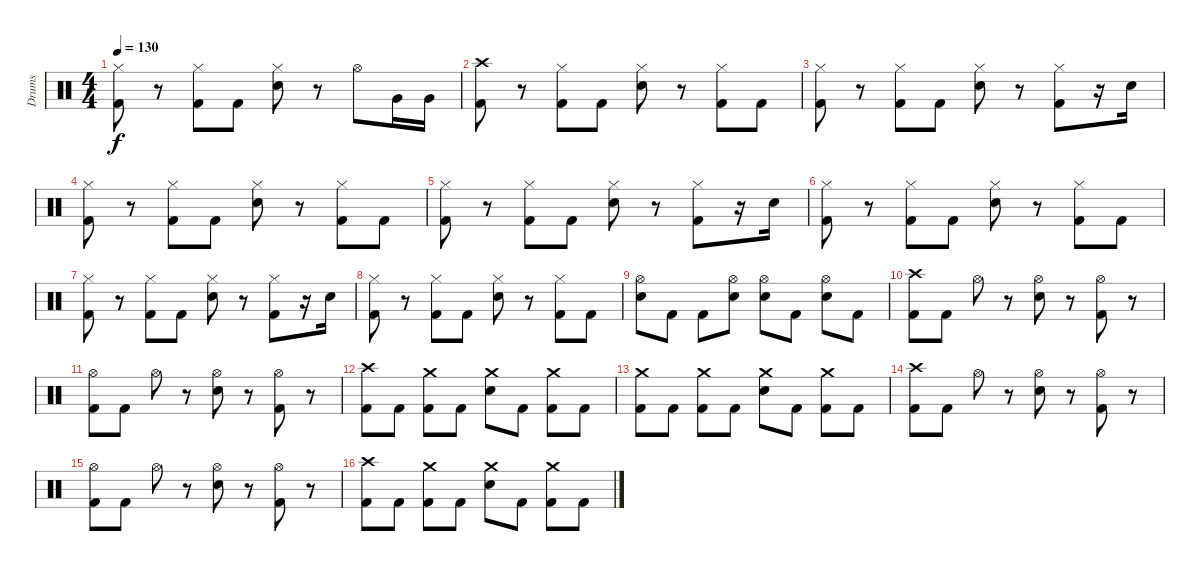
\track ("Drums" "Drums") {instrument percussion}
\staff {score}
\articulation defaults
\ts (4 4)
\tempo 130
\clef neutral
\ks c
("Hi-Hat (closed)" "Kick (hit) 2").8{dy f} r.8 ("Hi-Hat (closed)" "Kick (hit) 2").8 "Kick (hit) 2".8 ("Hi-Hat (closed)" "Electric Snare (hit)").8 r.8 "Hi-Hat (open)".8 "Very Low Tom (hit)".16 "Very Low Tom (hit)".16 |
("Crash high (hit)" "Kick (hit) 2").8 r.8 ("Hi-Hat (closed)" "Kick (hit) 2").8 "Kick (hit) 2".8 ("Hi-Hat (closed)" "Electric Snare (hit)").8 r.8 ("Hi-Hat (closed)" "Kick (hit) 2").8 "Kick (hit) 2".8 |
("Hi-Hat (closed)" "Kick (hit) 2").8 r.8 ("Hi-Hat (closed)" "Kick (hit) 2").8 "Kick (hit) 2".8 ("Hi-Hat (closed)" "Electric Snare (hit)").8 r.8 ("Hi-Hat (closed)" "Kick (hit) 2").8 r.16 "Electric Snare (hit)".16 |
("Hi-Hat (closed)" "Kick (hit) 2").8 r.8 ("Hi-Hat (closed)" "Kick (hit) 2").8 "Kick (hit) 2".8 ("Hi-Hat (closed)" "Electric Snare (hit)").8 r.8 ("Hi-Hat (closed)" "Kick (hit) 2").8 "Kick (hit) 2".8 |
("Hi-Hat (closed)" "Kick (hit) 2").8 r.8 ("Hi-Hat (closed)" "Kick (hit) 2").8 "Kick (hit) 2".8 ("Hi-Hat (closed)" "Electric Snare (hit)").8 r.8 ("Hi-Hat (closed)" "Kick (hit) 2").8 r.16 "Electric Snare (hit)".16 |
("Hi-Hat (closed)" "Kick (hit) 2").8 r.8 ("Hi-Hat (closed)" "Kick (hit) 2").8 "Kick (hit) 2".8 ("Hi-Hat (closed)" "Electric Snare (hit)").8 r.8 ("Hi-Hat (closed)" "Kick (hit) 2").8 "Kick (hit) 2".8 |
("Hi-Hat (closed)" "Kick (hit) 2").8 r.8 ("Hi-Hat (closed)" "Kick (hit) 2").8 "Kick (hit) 2".8 ("Hi-Hat (closed)" "Electric Snare (hit)").8 r.8 ("Hi-Hat (closed)" "Kick (hit) 2").8 r.16 "Electric Snare (hit)".16 |
("Hi-Hat (closed)" "Kick (hit) 2").8 r.8 ("Hi-Hat (closed)" "Kick (hit) 2").8 "Kick (hit) 2".8 ("Hi-Hat (closed)" "Electric Snare (hit)").8 r.8 ("Hi-Hat (closed)" "Kick (hit) 2").8 "Kick (hit) 2".8 |
("Hi-Hat (open)" "Electric Snare (hit)").8 "Kick (hit) 2".8 "Kick (hit) 2".8 ("Hi-Hat (open)" "Electric Snare (hit)").8 ("Hi-Hat (open)" "Electric Snare (hit)").8 "Kick (hit) 2".8 ("Hi-Hat (open)" "Electric Snare (hit)").8 "Kick (hit) 2".8 |
("Crash high (hit)" "Kick (hit) 2").8 "Kick (hit) 2".8 "Hi-Hat (open)".8 r.8 ("Hi-Hat (open)" "Electric Snare (hit)").8 r.8 ("Hi-Hat (open)" "Kick (hit) 2").8 r.8 |
("Hi-Hat (open)" "Kick (hit) 2").8 "Kick (hit) 2".8 "Hi-Hat (open)".8 r.8 ("Hi-Hat (open)" "Electric Snare (hit)").8 r.8 ("Hi-Hat (open)" "Kick (hit) 2").8 r.8 |
("Crash high (hit)" "Kick (hit) 2").8 "Kick (hit) 2".8 ("Crash medium (hit)" "Kick (hit) 2").8 "Kick (hit) 2".8 ("Crash medium (hit)" "Electric Snare (hit)").8 "Kick (hit) 2".8 ("Crash medium (hit)" "Kick (hit) 2").8 "Kick (hit) 2".8 |
("Crash medium (hit)" "Kick (hit) 2").8 "Kick (hit) 2".8 ("Crash medium (hit)" "Kick (hit) 2").8 "Kick (hit) 2".8 ("Crash medium (hit)" "Electric Snare (hit)").8 "Kick (hit) 2".8 ("Crash medium (hit)" "Kick (hit) 2").8 "Kick (hit) 2".8 |
("Crash high (hit)" "Kick (hit) 2").8 "Kick (hit) 2".8 "Hi-Hat (open)".8 r.8 ("Hi-Hat (open)" "Electric Snare (hit)").8 r.8 ("Hi-Hat (open)" "Kick (hit) 2").8 r.8 |
("Hi-Hat (open)" "Kick (hit) 2").8 "Kick (hit) 2".8 "Hi-Hat (open)".8 r.8 ("Hi-Hat (open)" "Electric Snare (hit)").8 r.8 ("Hi-Hat (open)" "Kick (hit) 2").8 r.8 |
("Crash high (hit)" "Kick (hit) 2").8 "Kick (hit) 2".8 ("Crash medium (hit)" "Kick (hit) 2").8 "Kick (hit) 2".8 ("Crash medium (hit)" "Electric Snare (hit)").8 "Kick (hit) 2".8 ("Crash medium (hit)" "Kick (hit) 2").8 "Kick (hit) 2".8
